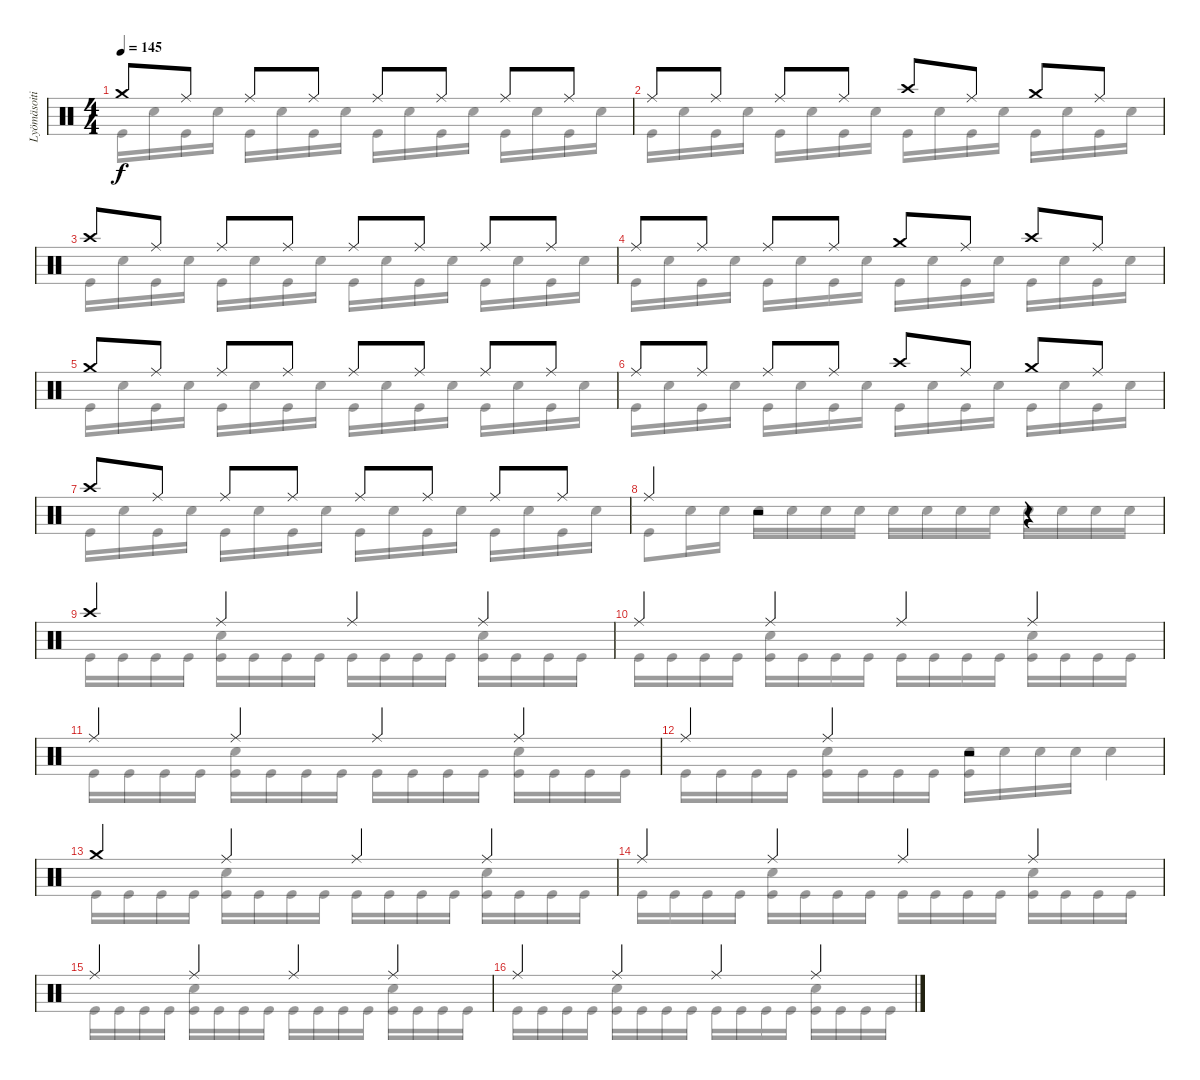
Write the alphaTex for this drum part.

\track ("Lyömäsoitin" "Lyömäsoiti") {instrument percussion}
\staff {score}
\articulation defaults
\voice
\ts (4 4)
\tempo 145
\clef neutral
\ks c "Crash medium (hit)".8{dy f} "Ride (middle)".8 "Ride (middle)".8 "Ride (middle)".8 "Ride (middle)".8 "Ride (middle)".8 "Ride (middle)".8 "Ride (middle)".8
|
"Ride (middle)".8 "Ride (middle)".8 "Ride (middle)".8 "Ride (middle)".8 "Crash high (hit)".8 "Ride (middle)".8 "Crash medium (hit)".8 "Ride (middle)".8 |
"Crash high (hit)".8 "Ride (middle)".8 "Ride (middle)".8 "Ride (middle)".8 "Ride (middle)".8 "Ride (middle)".8 "Ride (middle)".8 "Ride (middle)".8 |
"Ride (middle)".8 "Ride (middle)".8 "Ride (middle)".8 "Ride (middle)".8 "Crash medium (hit)".8 "Ride (middle)".8 "Crash high (hit)".8 "Ride (middle)".8 |
"Crash medium (hit)".8 "Ride (middle)".8 "Ride (middle)".8 "Ride (middle)".8 "Ride (middle)".8 "Ride (middle)".8 "Ride (middle)".8 "Ride (middle)".8 |
"Ride (middle)".8 "Ride (middle)".8 "Ride (middle)".8 "Ride (middle)".8 "Crash high (hit)".8 "Ride (middle)".8 "Crash medium (hit)".8 "Ride (middle)".8 |
"Crash high (hit)".8 "Ride (middle)".8 "Ride (middle)".8 "Ride (middle)".8 "Ride (middle)".8 "Ride (middle)".8 "Ride (middle)".8 "Ride (middle)".8 |
"Ride (middle)".4 r.2 r.4 |
"Crash high (hit)".4 "Ride (middle)".4 "Ride (middle)".4 "Ride (middle)".4 |
"Ride (middle)".4 "Ride (middle)".4 "Ride (middle)".4 "Ride (middle)".4 |
"Ride (middle)".4 "Ride (middle)".4 "Ride (middle)".4 "Ride (middle)".4 |
"Ride (middle)".4 "Ride (middle)".4 r.2 |
"Crash medium (hit)".4 "Ride (middle)".4 "Ride (middle)".4 "Ride (middle)".4 |
"Ride (middle)".4 "Ride (middle)".4 "Ride (middle)".4 "Ride (middle)".4 |
"Ride (middle)".4 "Ride (middle)".4 "Ride (middle)".4 "Ride (middle)".4 |
"Ride (middle)".4 "Ride (middle)".4 "Ride (middle)".4 "Ride (middle)".4
\voice
\clef neutral
\ottava regular
\simile none
\ks c "Kick (hit)".16{dy f} "Snare (hit) 2".16 "Kick (hit)".16 "Snare (hit) 2".16 "Kick (hit)".16 "Snare (hit) 2".16 "Kick (hit)".16 "Snare (hit) 2".16 "Kick (hit)".16 "Snare (hit) 2".16 "Kick (hit)".16 "Snare (hit) 2".16 "Kick (hit)".16 "Snare (hit) 2".16 "Kick (hit)".16 "Snare (hit) 2".16
|
"Kick (hit)".16 "Snare (hit) 2".16 "Kick (hit)".16 "Snare (hit) 2".16 "Kick (hit)".16 "Snare (hit) 2".16 "Kick (hit)".16 "Snare (hit) 2".16 "Kick (hit)".16 "Snare (hit) 2".16 "Kick (hit)".16 "Snare (hit) 2".16 "Kick (hit)".16 "Snare (hit) 2".16 "Kick (hit)".16 "Snare (hit) 2".16 |
"Kick (hit)".16 "Snare (hit) 2".16 "Kick (hit)".16 "Snare (hit) 2".16 "Kick (hit)".16 "Snare (hit) 2".16 "Kick (hit)".16 "Snare (hit) 2".16 "Kick (hit)".16 "Snare (hit) 2".16 "Kick (hit)".16 "Snare (hit) 2".16 "Kick (hit)".16 "Snare (hit) 2".16 "Kick (hit)".16 "Snare (hit) 2".16 |
"Kick (hit)".16 "Snare (hit) 2".16 "Kick (hit)".16 "Snare (hit) 2".16 "Kick (hit)".16 "Snare (hit) 2".16 "Kick (hit)".16 "Snare (hit) 2".16 "Kick (hit)".16 "Snare (hit) 2".16 "Kick (hit)".16 "Snare (hit) 2".16 "Kick (hit)".16 "Snare (hit) 2".16 "Kick (hit)".16 "Snare (hit) 2".16 |
"Kick (hit)".16 "Snare (hit) 2".16 "Kick (hit)".16 "Snare (hit) 2".16 "Kick (hit)".16 "Snare (hit) 2".16 "Kick (hit)".16 "Snare (hit) 2".16 "Kick (hit)".16 "Snare (hit) 2".16 "Kick (hit)".16 "Snare (hit) 2".16 "Kick (hit)".16 "Snare (hit) 2".16 "Kick (hit)".16 "Snare (hit) 2".16 |
"Kick (hit)".16 "Snare (hit) 2".16 "Kick (hit)".16 "Snare (hit) 2".16 "Kick (hit)".16 "Snare (hit) 2".16 "Kick (hit)".16 "Snare (hit) 2".16 "Kick (hit)".16 "Snare (hit) 2".16 "Kick (hit)".16 "Snare (hit) 2".16 "Kick (hit)".16 "Snare (hit) 2".16 "Kick (hit)".16 "Snare (hit) 2".16 |
"Kick (hit)".16 "Snare (hit) 2".16 "Kick (hit)".16 "Snare (hit) 2".16 "Kick (hit)".16 "Snare (hit) 2".16 "Kick (hit)".16 "Snare (hit) 2".16 "Kick (hit)".16 "Snare (hit) 2".16 "Kick (hit)".16 "Snare (hit) 2".16 "Kick (hit)".16 "Snare (hit) 2".16 "Kick (hit)".16 "Snare (hit) 2".16 |
"Kick (hit)".8 "Snare (hit) 2".16 "Snare (hit) 2".16 "Snare (hit) 2".16 "Snare (hit) 2".16 "Snare (hit) 2".16 "Snare (hit) 2".16 "Snare (hit) 2".16 "Snare (hit) 2".16 "Snare (hit) 2".16 "Snare (hit) 2".16 "Snare (hit) 2".16 "Snare (hit) 2".16 "Snare (hit) 2".16 "Snare (hit) 2".16 |
"Kick (hit)".16 "Kick (hit)".16 "Kick (hit)".16 "Kick (hit)".16 ("Snare (hit) 2" "Kick (hit)").16 "Kick (hit)".16 "Kick (hit)".16 "Kick (hit)".16 "Kick (hit)".16 "Kick (hit)".16 "Kick (hit)".16 "Kick (hit)".16 ("Snare (hit) 2" "Kick (hit)").16 "Kick (hit)".16 "Kick (hit)".16 "Kick (hit)".16 |
"Kick (hit)".16 "Kick (hit)".16 "Kick (hit)".16 "Kick (hit)".16 ("Snare (hit) 2" "Kick (hit)").16 "Kick (hit)".16 "Kick (hit)".16 "Kick (hit)".16 "Kick (hit)".16 "Kick (hit)".16 "Kick (hit)".16 "Kick (hit)".16 ("Snare (hit) 2" "Kick (hit)").16 "Kick (hit)".16 "Kick (hit)".16 "Kick (hit)".16 |
"Kick (hit)".16 "Kick (hit)".16 "Kick (hit)".16 "Kick (hit)".16 ("Snare (hit) 2" "Kick (hit)").16 "Kick (hit)".16 "Kick (hit)".16 "Kick (hit)".16 "Kick (hit)".16 "Kick (hit)".16 "Kick (hit)".16 "Kick (hit)".16 ("Snare (hit) 2" "Kick (hit)").16 "Kick (hit)".16 "Kick (hit)".16 "Kick (hit)".16 |
"Kick (hit)".16 "Kick (hit)".16 "Kick (hit)".16 "Kick (hit)".16 ("Snare (hit) 2" "Kick (hit)").16 "Kick (hit)".16 "Kick (hit)".16 "Kick (hit)".16 ("Snare (hit) 2" "Kick (hit)").16 "Snare (hit) 2".16 "Snare (hit) 2".16 "Snare (hit) 2".16 "Snare (hit) 2".4 |
"Kick (hit)".16 "Kick (hit)".16 "Kick (hit)".16 "Kick (hit)".16 ("Snare (hit) 2" "Kick (hit)").16 "Kick (hit)".16 "Kick (hit)".16 "Kick (hit)".16 "Kick (hit)".16 "Kick (hit)".16 "Kick (hit)".16 "Kick (hit)".16 ("Snare (hit) 2" "Kick (hit)").16 "Kick (hit)".16 "Kick (hit)".16 "Kick (hit)".16 |
"Kick (hit)".16 "Kick (hit)".16 "Kick (hit)".16 "Kick (hit)".16 ("Snare (hit) 2" "Kick (hit)").16 "Kick (hit)".16 "Kick (hit)".16 "Kick (hit)".16 "Kick (hit)".16 "Kick (hit)".16 "Kick (hit)".16 "Kick (hit)".16 ("Snare (hit) 2" "Kick (hit)").16 "Kick (hit)".16 "Kick (hit)".16 "Kick (hit)".16 |
"Kick (hit)".16 "Kick (hit)".16 "Kick (hit)".16 "Kick (hit)".16 ("Snare (hit) 2" "Kick (hit)").16 "Kick (hit)".16 "Kick (hit)".16 "Kick (hit)".16 "Kick (hit)".16 "Kick (hit)".16 "Kick (hit)".16 "Kick (hit)".16 ("Snare (hit) 2" "Kick (hit)").16 "Kick (hit)".16 "Kick (hit)".16 "Kick (hit)".16 |
"Kick (hit)".16 "Kick (hit)".16 "Kick (hit)".16 "Kick (hit)".16 ("Snare (hit) 2" "Kick (hit)").16 "Kick (hit)".16 "Kick (hit)".16 "Kick (hit)".16 "Kick (hit)".16 "Kick (hit)".16 "Kick (hit)".16 "Kick (hit)".16 ("Snare (hit) 2" "Kick (hit)").16 "Kick (hit)".16 "Kick (hit)".16 "Kick (hit)".16
